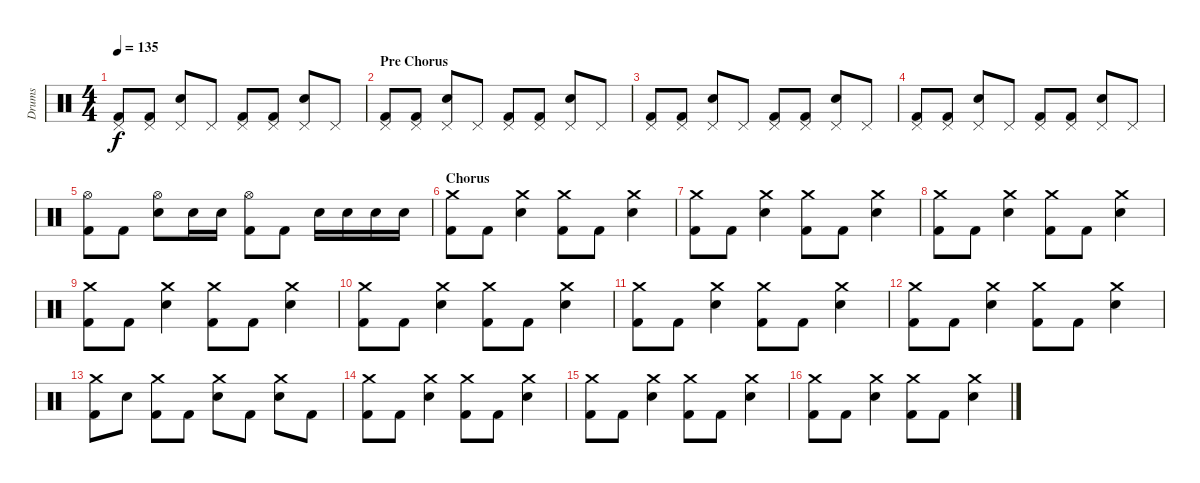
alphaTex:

\track ("Drums" "Drums") {instrument percussion}
\staff {score}
\articulation defaults
\ts (4 4)
\tempo 135
\clef neutral
\ks c
("Pedal Hi-Hat (hit)" "Kick (hit) 2").8{dy f} ("Pedal Hi-Hat (hit)" "Kick (hit) 2").8 ("Pedal Hi-Hat (hit)" "Electric Snare (hit)").8 "Pedal Hi-Hat (hit)".8 ("Pedal Hi-Hat (hit)" "Kick (hit) 2").8 ("Pedal Hi-Hat (hit)" "Kick (hit) 2").8 ("Pedal Hi-Hat (hit)" "Electric Snare (hit)").8 "Pedal Hi-Hat (hit)".8 |
\section ("" "Pre Chorus")
("Pedal Hi-Hat (hit)" "Kick (hit) 2").8 ("Pedal Hi-Hat (hit)" "Kick (hit) 2").8 ("Pedal Hi-Hat (hit)" "Electric Snare (hit)").8 "Pedal Hi-Hat (hit)".8 ("Pedal Hi-Hat (hit)" "Kick (hit) 2").8 ("Pedal Hi-Hat (hit)" "Kick (hit) 2").8 ("Pedal Hi-Hat (hit)" "Electric Snare (hit)").8 "Pedal Hi-Hat (hit)".8 |
("Pedal Hi-Hat (hit)" "Kick (hit) 2").8 ("Pedal Hi-Hat (hit)" "Kick (hit) 2").8 ("Pedal Hi-Hat (hit)" "Electric Snare (hit)").8 "Pedal Hi-Hat (hit)".8 ("Pedal Hi-Hat (hit)" "Kick (hit) 2").8 ("Pedal Hi-Hat (hit)" "Kick (hit) 2").8 ("Pedal Hi-Hat (hit)" "Electric Snare (hit)").8 "Pedal Hi-Hat (hit)".8 |
("Pedal Hi-Hat (hit)" "Kick (hit) 2").8 ("Pedal Hi-Hat (hit)" "Kick (hit) 2").8 ("Pedal Hi-Hat (hit)" "Electric Snare (hit)").8 "Pedal Hi-Hat (hit)".8 ("Pedal Hi-Hat (hit)" "Kick (hit) 2").8 ("Pedal Hi-Hat (hit)" "Kick (hit) 2").8 ("Pedal Hi-Hat (hit)" "Electric Snare (hit)").8 "Pedal Hi-Hat (hit)".8 |
("Hi-Hat (open)" "Kick (hit) 2").8 "Kick (hit) 2".8 ("Hi-Hat (open)" "Electric Snare (hit)").8 "Electric Snare (hit)".16 "Electric Snare (hit)".16 ("Hi-Hat (open)" "Kick (hit) 2").8 "Kick (hit) 2".8 "Electric Snare (hit)".16 "Electric Snare (hit)".16 "Electric Snare (hit)".16 "Electric Snare (hit)".16 |
\section ("" "Chorus")
("Crash medium (hit)" "Kick (hit) 2").8 "Kick (hit) 2".8 ("Crash medium (hit)" "Electric Snare (hit)").4 ("Crash medium (hit)" "Kick (hit) 2").8 "Kick (hit) 2".8 ("Crash medium (hit)" "Electric Snare (hit)").4 |
("Crash medium (hit)" "Kick (hit) 2").8 "Kick (hit) 2".8 ("Crash medium (hit)" "Electric Snare (hit)").4 ("Crash medium (hit)" "Kick (hit) 2").8 "Kick (hit) 2".8 ("Crash medium (hit)" "Electric Snare (hit)").4 |
("Crash medium (hit)" "Kick (hit) 2").8 "Kick (hit) 2".8 ("Crash medium (hit)" "Electric Snare (hit)").4 ("Crash medium (hit)" "Kick (hit) 2").8 "Kick (hit) 2".8 ("Crash medium (hit)" "Electric Snare (hit)").4 |
("Crash medium (hit)" "Kick (hit) 2").8 "Kick (hit) 2".8 ("Crash medium (hit)" "Electric Snare (hit)").4 ("Crash medium (hit)" "Kick (hit) 2").8 "Kick (hit) 2".8 ("Crash medium (hit)" "Electric Snare (hit)").4 |
("Crash medium (hit)" "Kick (hit) 2").8 "Kick (hit) 2".8 ("Crash medium (hit)" "Electric Snare (hit)").4 ("Crash medium (hit)" "Kick (hit) 2").8 "Kick (hit) 2".8 ("Crash medium (hit)" "Electric Snare (hit)").4 |
("Crash medium (hit)" "Kick (hit) 2").8 "Kick (hit) 2".8 ("Crash medium (hit)" "Electric Snare (hit)").4 ("Crash medium (hit)" "Kick (hit) 2").8 "Kick (hit) 2".8 ("Crash medium (hit)" "Electric Snare (hit)").4 |
("Crash medium (hit)" "Kick (hit) 2").8 "Kick (hit) 2".8 ("Crash medium (hit)" "Electric Snare (hit)").4 ("Crash medium (hit)" "Kick (hit) 2").8 "Kick (hit) 2".8 ("Crash medium (hit)" "Electric Snare (hit)").4 |
("Crash medium (hit)" "Kick (hit) 2").8 "Electric Snare (hit)".8 ("Crash medium (hit)" "Kick (hit) 2").8 "Kick (hit) 2".8 ("Crash medium (hit)" "Electric Snare (hit)").8 "Kick (hit) 2".8 ("Crash medium (hit)" "Electric Snare (hit)").8 "Kick (hit) 2".8 |
("Crash medium (hit)" "Kick (hit) 2").8 "Kick (hit) 2".8 ("Crash medium (hit)" "Electric Snare (hit)").4 ("Crash medium (hit)" "Kick (hit) 2").8 "Kick (hit) 2".8 ("Crash medium (hit)" "Electric Snare (hit)").4 |
("Crash medium (hit)" "Kick (hit) 2").8 "Kick (hit) 2".8 ("Crash medium (hit)" "Electric Snare (hit)").4 ("Crash medium (hit)" "Kick (hit) 2").8 "Kick (hit) 2".8 ("Crash medium (hit)" "Electric Snare (hit)").4 |
("Crash medium (hit)" "Kick (hit) 2").8 "Kick (hit) 2".8 ("Crash medium (hit)" "Electric Snare (hit)").4 ("Crash medium (hit)" "Kick (hit) 2").8 "Kick (hit) 2".8 ("Crash medium (hit)" "Electric Snare (hit)").4
